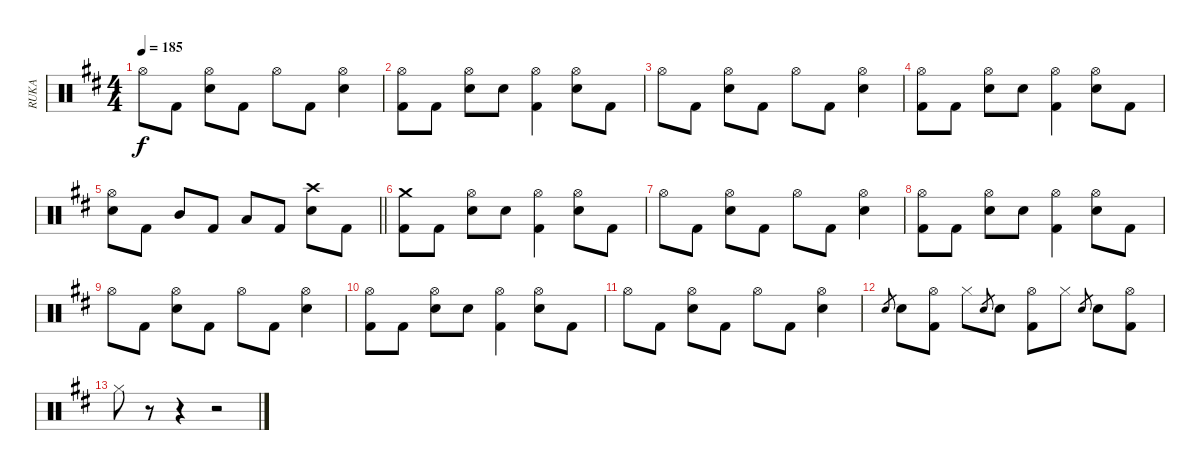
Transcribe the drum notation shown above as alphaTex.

\track ("RUKA" "RUKA") {instrument percussion}
\staff {score}
\articulation defaults
\ts (4 4)
\tempo 185
\clef neutral
\ks d "Hi-Hat (open)".8{dy f} "Kick (hit) 2".8
("Hi-Hat (open)" "Snare (hit) 2").8 "Kick (hit) 2".8 "Hi-Hat (open)".8 "Kick (hit) 2".8 ("Hi-Hat (open)" "Snare (hit) 2").4 |
("Hi-Hat (open)" "Kick (hit) 2").8 "Kick (hit) 2".8 ("Hi-Hat (open)" "Snare (hit) 2").8 "Snare (hit) 2".8 ("Hi-Hat (open)" "Kick (hit) 2").4 ("Hi-Hat (open)" "Snare (hit) 2").8 "Kick (hit) 2".8 |
"Hi-Hat (open)".8 "Kick (hit) 2".8 ("Hi-Hat (open)" "Snare (hit) 2").8 "Kick (hit) 2".8 "Hi-Hat (open)".8 "Kick (hit) 2".8 ("Hi-Hat (open)" "Snare (hit) 2").4 |
("Hi-Hat (open)" "Kick (hit) 2").8 "Kick (hit) 2".8 ("Hi-Hat (open)" "Snare (hit) 2").8 "Snare (hit) 2".8 ("Hi-Hat (open)" "Kick (hit) 2").4 ("Hi-Hat (open)" "Snare (hit) 2").8 "Kick (hit) 2".8 |
\barLineRight lightlight
("Hi-Hat (open)" "Snare (hit) 2").8 "Kick (hit) 2".8 "Mid Tom (hit)".8 "Kick (hit) 2".8 "Low Tom (hit)".8 "Kick (hit) 2".8 ("Crash high (hit)" "Snare (hit) 2").8 "Kick (hit) 2".8 |
("Crash medium (hit)" "Kick (hit) 2").8 "Kick (hit) 2".8 ("Hi-Hat (open)" "Snare (hit) 2").8 "Snare (hit) 2".8 ("Hi-Hat (open)" "Kick (hit) 2").4 ("Hi-Hat (open)" "Snare (hit) 2").8 "Kick (hit) 2".8 |
"Hi-Hat (open)".8 "Kick (hit) 2".8 ("Hi-Hat (open)" "Snare (hit) 2").8 "Kick (hit) 2".8 "Hi-Hat (open)".8 "Kick (hit) 2".8 ("Hi-Hat (open)" "Snare (hit) 2").4 |
("Hi-Hat (open)" "Kick (hit) 2").8 "Kick (hit) 2".8 ("Hi-Hat (open)" "Snare (hit) 2").8 "Snare (hit) 2".8 ("Hi-Hat (open)" "Kick (hit) 2").4 ("Hi-Hat (open)" "Snare (hit) 2").8 "Kick (hit) 2".8 |
"Hi-Hat (open)".8 "Kick (hit) 2".8 ("Hi-Hat (open)" "Snare (hit) 2").8 "Kick (hit) 2".8 "Hi-Hat (open)".8 "Kick (hit) 2".8 ("Hi-Hat (open)" "Snare (hit) 2").4 |
("Hi-Hat (open)" "Kick (hit) 2").8 "Kick (hit) 2".8 ("Hi-Hat (open)" "Snare (hit) 2").8 "Snare (hit) 2".8 ("Hi-Hat (open)" "Kick (hit) 2").4 ("Hi-Hat (open)" "Snare (hit) 2").8 "Kick (hit) 2".8 |
"Hi-Hat (open)".8 "Kick (hit) 2".8 ("Hi-Hat (open)" "Snare (hit) 2").8 "Kick (hit) 2".8 "Hi-Hat (open)".8 "Kick (hit) 2".8 ("Hi-Hat (open)" "Snare (hit) 2").4 |
"Snare (hit) 2".8{gr} "Snare (hit) 2".8 ("Hi-Hat (open)" "Kick (hit) 2").8 "Hi-Hat (closed)".8 "Snare (hit) 2".8{gr} "Snare (hit) 2".8 ("Hi-Hat (open)" "Kick (hit) 2").8 "Hi-Hat (closed)".8 "Snare (hit) 2".8{gr} "Snare (hit) 2".8 ("Hi-Hat (open)" "Kick (hit) 2").8 |
"Hi-Hat (closed)".8 r.8 r.4 r.2
